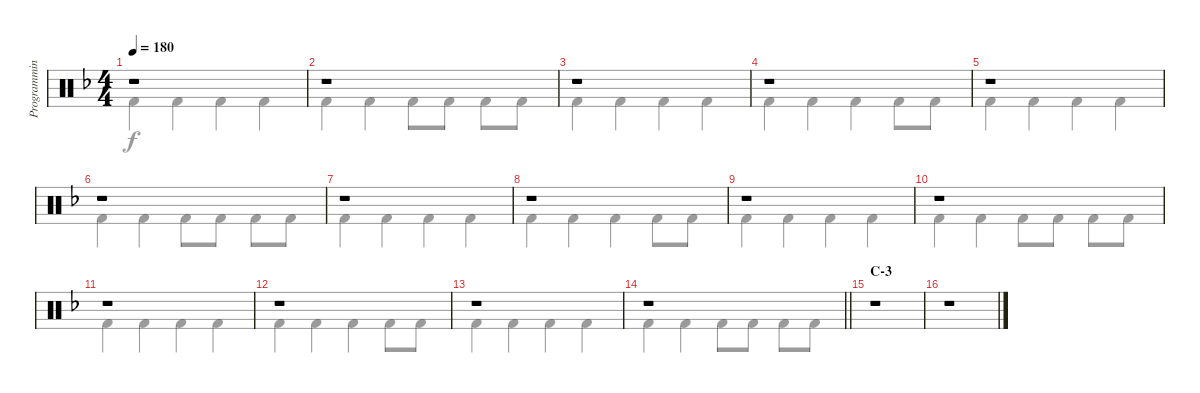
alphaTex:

\track ("Programming" "Programmin") {instrument percussion}
\staff {score}
\articulation defaults
\voice
\ts (4 4)
\tempo 180
\clef neutral
\ks f
r.1{dy mp} |
r.1 |
r.1 |
r.1 |
r.1 |
r.1 |
r.1 |
r.1 |
r.1 |
r.1 |
r.1 |
r.1 |
r.1 |
\barLineRight lightlight
r.1 |
\section ("" "C-3")
r.1 |
r.1
\voice
\clef neutral
\ottava regular
\simile none
\ks f "Kick (hit) 2".4{dy f} "Kick (hit) 2".4 "Kick (hit) 2".4 "Kick (hit) 2".4
|
"Kick (hit) 2".4 "Kick (hit) 2".4 "Kick (hit) 2".8 "Kick (hit) 2".8 "Kick (hit) 2".8 "Kick (hit) 2".8 |
"Kick (hit) 2".4 "Kick (hit) 2".4 "Kick (hit) 2".4 "Kick (hit) 2".4 |
"Kick (hit) 2".4 "Kick (hit) 2".4 "Kick (hit) 2".4 "Kick (hit) 2".8 "Kick (hit) 2".8 |
"Kick (hit) 2".4 "Kick (hit) 2".4 "Kick (hit) 2".4 "Kick (hit) 2".4 |
"Kick (hit) 2".4 "Kick (hit) 2".4 "Kick (hit) 2".8 "Kick (hit) 2".8 "Kick (hit) 2".8 "Kick (hit) 2".8 |
"Kick (hit) 2".4 "Kick (hit) 2".4 "Kick (hit) 2".4 "Kick (hit) 2".4 |
"Kick (hit) 2".4 "Kick (hit) 2".4 "Kick (hit) 2".4 "Kick (hit) 2".8 "Kick (hit) 2".8 |
"Kick (hit) 2".4 "Kick (hit) 2".4 "Kick (hit) 2".4 "Kick (hit) 2".4 |
"Kick (hit) 2".4 "Kick (hit) 2".4 "Kick (hit) 2".8 "Kick (hit) 2".8 "Kick (hit) 2".8 "Kick (hit) 2".8 |
"Kick (hit) 2".4 "Kick (hit) 2".4 "Kick (hit) 2".4 "Kick (hit) 2".4 |
"Kick (hit) 2".4 "Kick (hit) 2".4 "Kick (hit) 2".4 "Kick (hit) 2".8 "Kick (hit) 2".8 |
"Kick (hit) 2".4 "Kick (hit) 2".4 "Kick (hit) 2".4 "Kick (hit) 2".4 |
\barLineRight lightlight "Kick (hit) 2".4 "Kick (hit) 2".4 "Kick (hit) 2".8 "Kick (hit) 2".8 "Kick (hit) 2".8 "Kick (hit) 2".8
|
r.1 |
r.1
